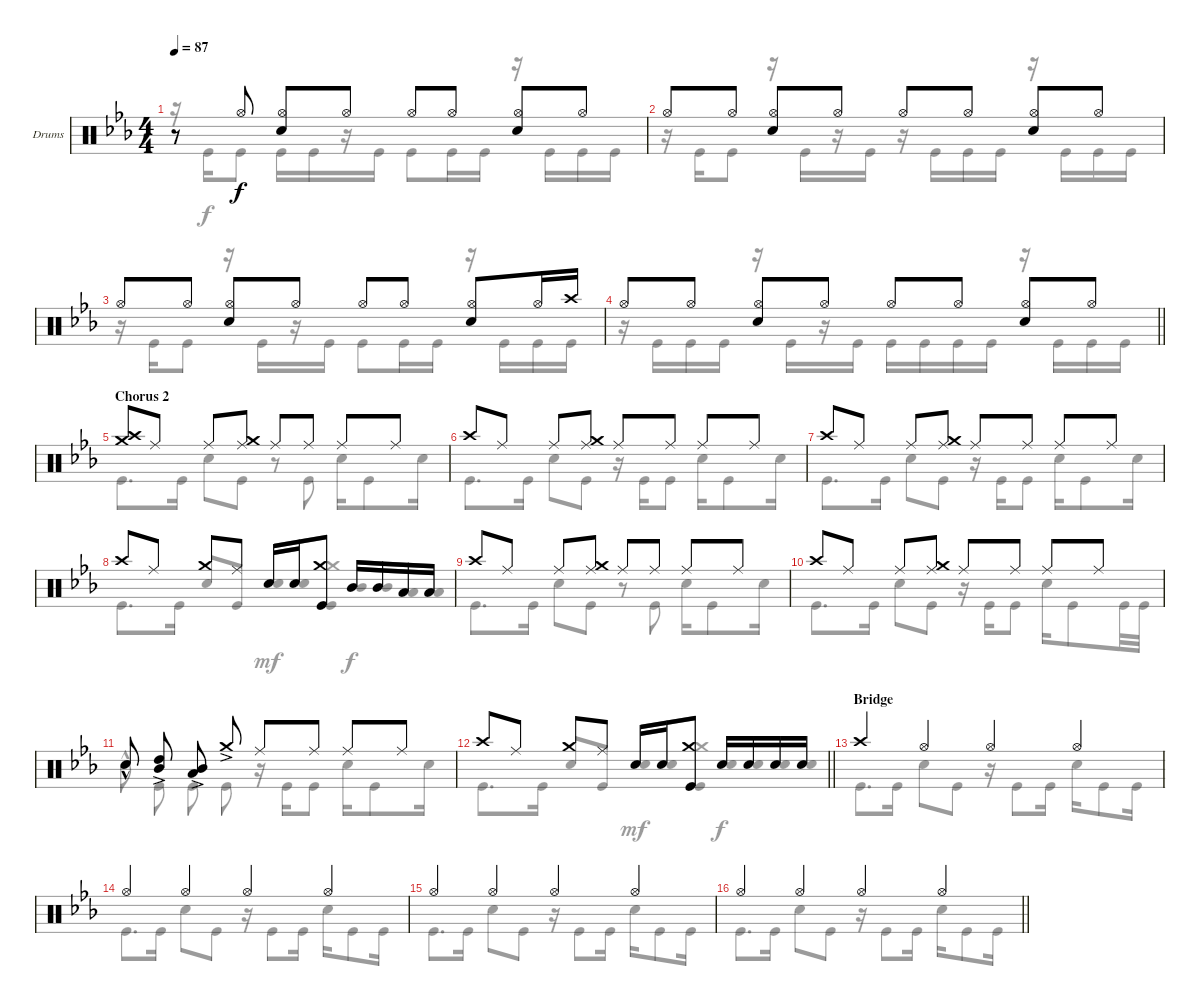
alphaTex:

\bracketExtendMode groupsimilarinstruments
\firstSystemTrackNameOrientation horizontal
\otherSystemsTrackNameOrientation horizontal
\track ("Mike Wengren" "Drums") {instrument percussion}
\staff {score}
\articulation defaults
\voice
\ts (4 4)
\tempo 87
\clef neutral
\ks cminor
r.8{dy f} "Hi-Hat (open)".8 ("Hi-Hat (open)" "Snare (hit) 2").8 "Hi-Hat (open)".8 "Hi-Hat (open)".8 "Hi-Hat (open)".8 ("Hi-Hat (open)" "Snare (hit) 2").8 "Hi-Hat (open)".8 |
"Hi-Hat (open)".8 "Hi-Hat (open)".8 ("Hi-Hat (open)" "Snare (hit) 2").8 "Hi-Hat (open)".8 "Hi-Hat (open)".8 "Hi-Hat (open)".8 ("Hi-Hat (open)" "Snare (hit) 2").8 "Hi-Hat (open)".8 |
"Hi-Hat (open)".8 "Hi-Hat (open)".8 ("Hi-Hat (open)" "Snare (hit) 2").8 "Hi-Hat (open)".8 "Hi-Hat (open)".8 "Hi-Hat (open)".8 ("Hi-Hat (open)" "Snare (hit) 2").8 "Hi-Hat (open)".16 "Crash high (hit)".16 |
\barLineRight lightlight "Hi-Hat (open)".8 "Hi-Hat (open)".8
("Hi-Hat (open)" "Snare (hit) 2").8 "Hi-Hat (open)".8 "Hi-Hat (open)".8 "Hi-Hat (open)".8 ("Hi-Hat (open)" "Snare (hit) 2").8 "Hi-Hat (open)".8 |
\section ("" "Chorus 2")
("Crash high (hit)" "Crash medium (hit)").8 "Ride (middle)".8 "Ride (middle)".8 ("Crash medium (hit)" "Ride (middle)").8 "Ride (middle)".8 "Ride (middle)".8 "Ride (middle)".8 "Ride (middle)".8 |
"Crash high (hit)".8 "Ride (middle)".8 "Ride (middle)".8 ("Crash medium (hit)" "Ride (middle)").8 "Ride (middle)".8 "Ride (middle)".8 "Ride (middle)".8 "Ride (middle)".8 |
"Crash high (hit)".8 "Ride (middle)".8 "Ride (middle)".8 ("Crash medium (hit)" "Ride (middle)").8 "Ride (middle)".8 "Ride (middle)".8 "Ride (middle)".8 "Ride (middle)".8 |
"Crash high (hit)".8 "Ride (middle)".8 "Crash medium (hit)".8 "Ride (middle)".8 "Snare (hit) 2".16 "Snare (hit) 2".16 ("Crash medium (hit)" "Kick (hit)").8 "Mid Tom (hit)".16 "Mid Tom (hit)".16 "Low Tom (hit)".16 "Low Tom (hit)".16 |
"Crash high (hit)".8 "Ride (middle)".8 "Ride (middle)".8 ("Crash medium (hit)" "Ride (middle)").8 "Ride (middle)".8 "Ride (middle)".8 "Ride (middle)".8 "Ride (middle)".8 |
"Crash high (hit)".8 "Ride (middle)".8 "Ride (middle)".8 ("Crash medium (hit)" "Ride (middle)").8 "Ride (middle)".8 "Ride (middle)".8 "Ride (middle)".8 "Ride (middle)".8 |
"Snare (hit) 2"{hac}.8{beam split} ("High Tom (hit)"{ac} "Mid Tom (hit)").8 ("Mid Tom (hit)"{ac} "Low Tom (hit)").8{beam split} "Crash medium (hit)"{ac}.8 "Ride (middle)".8 "Ride (middle)".8 "Ride (middle)".8 "Ride (middle)".8 |
\barLineRight lightlight "Crash high (hit)".8 "Ride (middle)".8 "Crash medium (hit)".8 "Ride (middle)".8 "Snare (hit) 2".16 "Snare (hit) 2".16
("Crash medium (hit)" "Kick (hit)").8 "Snare (hit) 2".16 "Snare (hit) 2".16 "Snare (hit) 2".16 "Snare (hit) 2".16 |
\section ("" "Bridge")
"Crash high (hit)".4 "Hi-Hat (open)".4 "Hi-Hat (open)".4 "Hi-Hat (open)".4 |
"Hi-Hat (open)".4 "Hi-Hat (open)".4 "Hi-Hat (open)".4 "Hi-Hat (open)".4 |
"Hi-Hat (open)".4 "Hi-Hat (open)".4 "Hi-Hat (open)".4 "Hi-Hat (open)".4 |
\barLineRight lightlight "Hi-Hat (open)".4 "Hi-Hat (open)".4 "Hi-Hat (open)".4 "Hi-Hat (open)".4
\voice
\clef neutral
\ottava regular
\simile none
\ks cminor
r.16{dy f} "Kick (hit)".16 "Kick (hit)".8 "Kick (hit)".16 "Kick (hit)".16 r.16 "Kick (hit)".16 "Kick (hit)".8 "Kick (hit)".16 "Kick (hit)".16 r.16 "Kick (hit)".16 "Kick (hit)".16 "Kick (hit)".16 |
r.16 "Kick (hit)".16 "Kick (hit)".8 r.16 "Kick (hit)".16 r.16 "Kick (hit)".16 r.16 "Kick (hit)".16 "Kick (hit)".16 "Kick (hit)".16 r.16 "Kick (hit)".16 "Kick (hit)".16 "Kick (hit)".16 |
r.16 "Kick (hit)".16 "Kick (hit)".8 r.16 "Kick (hit)".16 r.16 "Kick (hit)".16 "Kick (hit)".8 "Kick (hit)".16 "Kick (hit)".16 r.16 "Kick (hit)".16 "Kick (hit)".16 "Kick (hit)".16 |
\barLineRight lightlight
r.16 "Kick (hit)".16 "Kick (hit)".16 "Kick (hit)".16 r.16 "Kick (hit)".16 r.16 "Kick (hit)".16 "Kick (hit)".16 "Kick (hit)".16 "Kick (hit)".16 "Kick (hit)".16 r.16 "Kick (hit)".16 "Kick (hit)".16 "Kick (hit)".16 |
"Kick (hit)".8{d} "Kick (hit)".16 "Snare (hit) 2".8 "Kick (hit)".8 r.8 "Kick (hit)".8 "Snare (hit) 2".16 "Kick (hit)".8 "Snare (hit) 2".16 |
"Kick (hit)".8{d} "Kick (hit)".16 "Snare (hit) 2".8 "Kick (hit)".8 r.16 "Kick (hit)".16 "Kick (hit)".8 "Snare (hit) 2".16 "Kick (hit)".8 "Snare (hit) 2".16 |
"Kick (hit)".8{d} "Kick (hit)".16 "Snare (hit) 2".8 "Kick (hit)".8 r.16 "Kick (hit)".16 "Kick (hit)".8 "Snare (hit) 2".16 "Kick (hit)".8 "Snare (hit) 2".16 |
"Kick (hit)".8{d} "Kick (hit)".16 "Snare (hit) 2".8 "Kick (hit)".8 "Snare (hit) 2".16{dy mf beam invert} "Snare (hit) 2".16 ("Crash medium (hit)" "Kick (hit)").8 "Mid Tom (hit)".16{dy f beam invert} "Mid Tom (hit)".16 "Low Tom (hit)".16 "Low Tom (hit)".16 |
"Kick (hit)".8{d} "Kick (hit)".16 "Snare (hit) 2".8 "Kick (hit)".8 r.8 "Kick (hit)".8 "Snare (hit) 2".16 "Kick (hit)".8 "Snare (hit) 2".16 |
"Kick (hit)".8{d} "Kick (hit)".16 "Snare (hit) 2".8 "Kick (hit)".8 r.16 "Kick (hit)".16 "Kick (hit)".8 "Snare (hit) 2".16 "Kick (hit)".8 "Kick (hit)".32 "Kick (hit)".32 |
"Snare (hit) 2"{hac}.8{beam split} "Kick (hit)".8{beam split} "Kick (hit)".8{beam split} "Kick (hit)".8{beam split} r.16{beam merge} "Kick (hit)".16{beam merge} "Kick (hit)".8{beam split} "Snare (hit) 2".16{beam merge} "Kick (hit)".8{beam merge} "Snare (hit) 2".16{beam merge} |
\barLineRight lightlight "Kick (hit)".8{d} "Kick (hit)".16 "Snare (hit) 2".8 "Kick (hit)".8 "Snare (hit) 2".16{dy mf beam invert} "Snare (hit) 2".16
("Crash medium (hit)" "Kick (hit)").8 "Snare (hit) 2".16{dy f beam invert} "Snare (hit) 2".16 "Snare (hit) 2".16 "Snare (hit) 2".16 |
"Kick (hit)".8{d} "Kick (hit)".16 "Snare (hit) 2".8 "Kick (hit)".8 r.16 "Kick (hit)".8 "Kick (hit)".16 "Snare (hit) 2".16 "Kick (hit)".8 "Kick (hit)".16 |
"Kick (hit)".8{d} "Kick (hit)".16 "Snare (hit) 2".8 "Kick (hit)".8 r.16 "Kick (hit)".8 "Kick (hit)".16 "Snare (hit) 2".16 "Kick (hit)".8 "Kick (hit)".16 |
"Kick (hit)".8{d} "Kick (hit)".16 "Snare (hit) 2".8 "Kick (hit)".8 r.16 "Kick (hit)".8 "Kick (hit)".16 "Snare (hit) 2".16 "Kick (hit)".8 "Kick (hit)".16 |
\barLineRight lightlight "Kick (hit)".8{d} "Kick (hit)".16 "Snare (hit) 2".8 "Kick (hit)".8
r.16 "Kick (hit)".8 "Kick (hit)".16 "Snare (hit) 2".16 "Kick (hit)".8 "Kick (hit)".16
